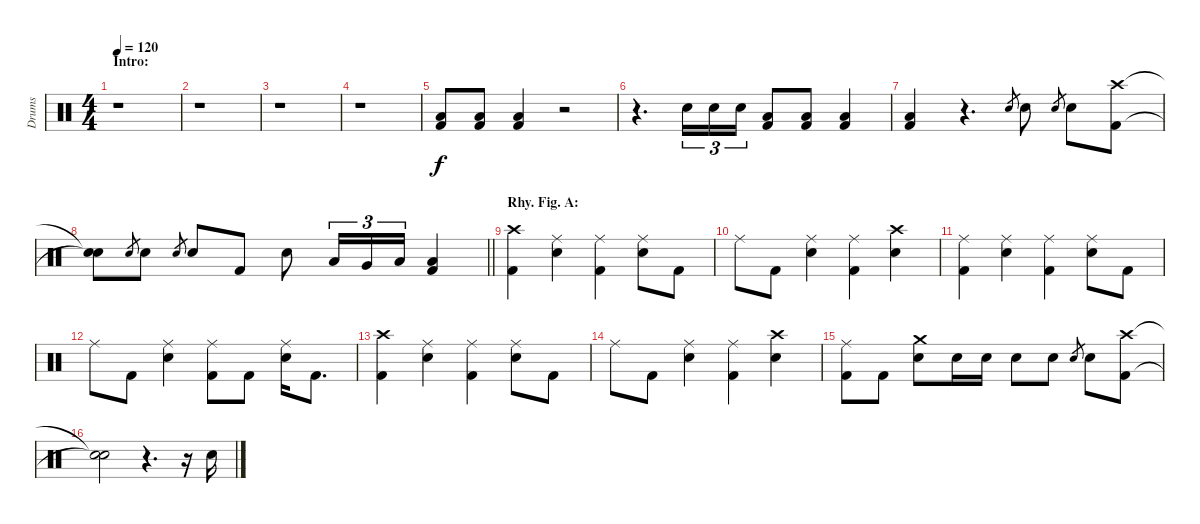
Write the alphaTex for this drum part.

\track ("Drums" "Drums") {instrument percussion}
\staff {score}
\articulation defaults
\ts (4 4)
\section ("" "Intro:")
\tempo 120
\clef neutral
\ks c
r.1{dy f} |
r.1 |
r.1 |
r.1 |
("Low Floor Tom (hit)" "Kick (hit) 2").8 ("Low Floor Tom (hit)" "Kick (hit) 2").8 ("Low Floor Tom (hit)" "Kick (hit) 2").4 r.2 |
r.4{d} "Electric Snare (hit)".16{tu (3 2)} "Electric Snare (hit)".16{tu (3 2)} "Electric Snare (hit)".16{tu (3 2)} ("Low Floor Tom (hit)" "Kick (hit) 2").8 ("Low Floor Tom (hit)" "Kick (hit) 2").8 ("Low Floor Tom (hit)" "Kick (hit) 2").4 |
("Low Floor Tom (hit)" "Kick (hit) 2").4 r.4{d} "Electric Snare (hit)".8{gr} "Electric Snare (hit)".8 "Electric Snare (hit)".8{gr} "Electric Snare (hit)".8 ("Crash high (hit)" "Kick (hit) 2").8 |
\barLineRight lightlight
("Snare (hit)"{t} "Snare (hit)"{t}).8 "Electric Snare (hit)".8{gr} "Electric Snare (hit)".8 "Electric Snare (hit)".8{gr} "Electric Snare (hit)".8 "Kick (hit) 2".8 "Electric Snare (hit)".8 "Low Tom (hit)".16{tu (3 2)} "Very Low Tom (hit)".16{tu (3 2)} "Low Floor Tom (hit)".16{tu (3 2)} ("Low Floor Tom (hit)" "Kick (hit) 2").4 |
\section ("" "Rhy. Fig. A:")
("Crash high (hit)" "Kick (hit) 2").4 ("Ride (middle)" "Electric Snare (hit)").4 ("Ride (middle)" "Kick (hit) 2").4 ("Ride (middle)" "Electric Snare (hit)").8 "Kick (hit) 2".8 |
"Ride (middle)".8 "Kick (hit) 2".8 ("Ride (middle)" "Electric Snare (hit)").4 ("Ride (middle)" "Kick (hit) 2").4 ("Crash high (hit)" "Electric Snare (hit)").4 |
("Ride (middle)" "Kick (hit) 2").4 ("Ride (middle)" "Electric Snare (hit)").4 ("Ride (middle)" "Kick (hit) 2").4 ("Ride (middle)" "Electric Snare (hit)").8 "Kick (hit) 2".8 |
"Ride (middle)".8 "Kick (hit) 2".8 ("Ride (middle)" "Electric Snare (hit)").4 ("Ride (middle)" "Kick (hit) 2").8 "Kick (hit) 2".8 ("Ride (middle)" "Electric Snare (hit)").16 "Kick (hit) 2".8{d} |
("Crash high (hit)" "Kick (hit) 2").4 ("Ride (middle)" "Electric Snare (hit)").4 ("Ride (middle)" "Kick (hit) 2").4 ("Ride (middle)" "Electric Snare (hit)").8 "Kick (hit) 2".8 |
"Ride (middle)".8 "Kick (hit) 2".8 ("Ride (middle)" "Electric Snare (hit)").4 ("Ride (middle)" "Kick (hit) 2").4 ("Crash high (hit)" "Electric Snare (hit)").4 |
("Ride (middle)" "Kick (hit) 2").8 "Kick (hit) 2".8 ("Crash medium (hit)" "Electric Snare (hit)").8 "Electric Snare (hit)".16 "Electric Snare (hit)".16 "Electric Snare (hit)".8 "Electric Snare (hit)".8 "Electric Snare (hit)".8{gr} "Electric Snare (hit)".8 ("Crash high (hit)" "Kick (hit) 2").8 |
("Snare (hit)"{t} "Snare (hit)"{t}).2 r.4{d} r.16 "Electric Snare (hit)".16
